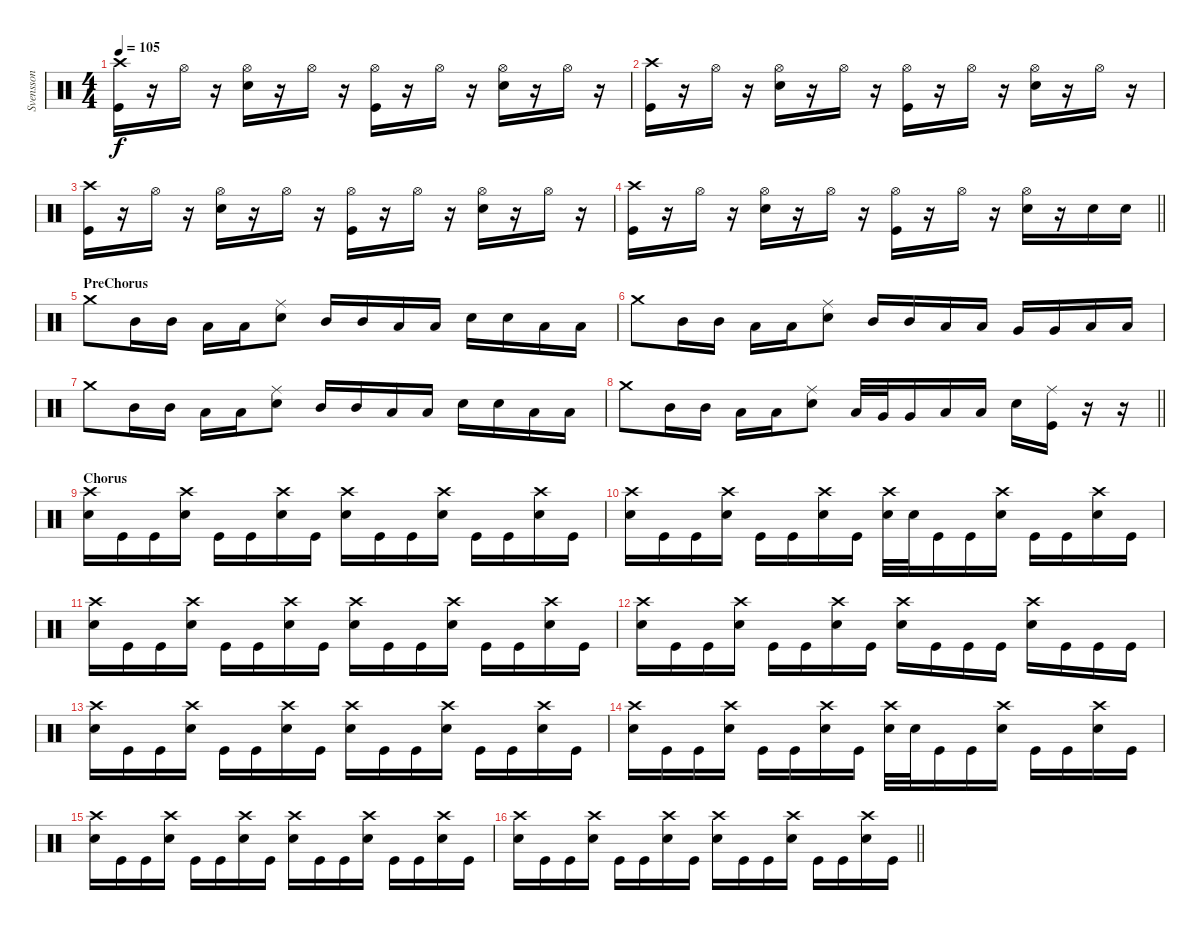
\track ("Svensson" "Svensson") {instrument percussion}
\staff {score}
\articulation defaults
\ts (4 4)
\tempo 105
\clef neutral
\ks c
("Crash high (hit)" "Kick (hit)").16{dy f} r.16 "Hi-Hat (open)".16 r.16 ("Hi-Hat (open)" "Snare (hit) 2").16 r.16 "Hi-Hat (open)".16 r.16 ("Hi-Hat (open)" "Kick (hit)").16 r.16 "Hi-Hat (open)".16 r.16 ("Hi-Hat (open)" "Snare (hit) 2").16 r.16 "Hi-Hat (open)".16 r.16 |
("Crash high (hit)" "Kick (hit)").16 r.16 "Hi-Hat (open)".16 r.16 ("Hi-Hat (open)" "Snare (hit) 2").16 r.16 "Hi-Hat (open)".16 r.16 ("Hi-Hat (open)" "Kick (hit)").16 r.16 "Hi-Hat (open)".16 r.16 ("Hi-Hat (open)" "Snare (hit) 2").16 r.16 "Hi-Hat (open)".16 r.16 |
("Crash high (hit)" "Kick (hit)").16 r.16 "Hi-Hat (open)".16 r.16 ("Hi-Hat (open)" "Snare (hit) 2").16 r.16 "Hi-Hat (open)".16 r.16 ("Hi-Hat (open)" "Kick (hit)").16 r.16 "Hi-Hat (open)".16 r.16 ("Hi-Hat (open)" "Snare (hit) 2").16 r.16 "Hi-Hat (open)".16 r.16 |
\barLineRight lightlight
("Crash high (hit)" "Kick (hit)").16 r.16 "Hi-Hat (open)".16 r.16 ("Hi-Hat (open)" "Snare (hit) 2").16 r.16 "Hi-Hat (open)".16 r.16 ("Hi-Hat (open)" "Kick (hit)").16 r.16 "Hi-Hat (open)".16 r.16 ("Hi-Hat (open)" "Snare (hit) 2").16 r.16 "Snare (hit) 2".16 "Snare (hit) 2".16 |
\section ("" "PreChorus")
"Crash medium (hit)".8 "Mid Tom (hit)".16 "Mid Tom (hit)".16 "Low Tom (hit)".16 "Low Tom (hit)".16 ("Ride (middle)" "Snare (hit) 2").8 "Mid Tom (hit)".16 "Mid Tom (hit)".16 "Low Tom (hit)".16 "Low Tom (hit)".16 "Snare (hit) 2".16 "Snare (hit) 2".16 "Low Tom (hit)".16 "Low Tom (hit)".16 |
"Crash medium (hit)".8 "Mid Tom (hit)".16 "Mid Tom (hit)".16 "Low Tom (hit)".16 "Low Tom (hit)".16 ("Ride (middle)" "Snare (hit) 2").8 "Mid Tom (hit)".16 "Mid Tom (hit)".16 "Low Tom (hit)".16 "Low Tom (hit)".16 "Very Low Tom (hit)".16 "Very Low Tom (hit)".16 "Low Tom (hit)".16 "Low Tom (hit)".16 |
"Crash medium (hit)".8 "Mid Tom (hit)".16 "Mid Tom (hit)".16 "Low Tom (hit)".16 "Low Tom (hit)".16 ("Ride (middle)" "Snare (hit) 2").8 "Mid Tom (hit)".16 "Mid Tom (hit)".16 "Low Tom (hit)".16 "Low Tom (hit)".16 "Snare (hit) 2".16 "Snare (hit) 2".16 "Low Tom (hit)".16 "Low Tom (hit)".16 |
\barLineRight lightlight "Crash medium (hit)".8 "Mid Tom (hit)".16 "Mid Tom (hit)".16 "Low Tom (hit)".16 "Low Tom (hit)".16
("Ride (middle)" "Snare (hit) 2").8 "Low Tom (hit)".32 "Very Low Tom (hit)".32 "Very Low Tom (hit)".16 "Low Tom (hit)".16 "Low Tom (hit)".16 "Snare (hit) 2".16 ("Ride (middle)" "Kick (hit)").16 r.16 r.16 |
\section ("" "Chorus")
("Crash high (hit)" "Snare (hit) 2").16 "Kick (hit)".16 "Kick (hit)".16 ("Crash high (hit)" "Snare (hit) 2").16 "Kick (hit)".16 "Kick (hit)".16 ("Crash high (hit)" "Snare (hit) 2").16 "Kick (hit)".16 ("Crash high (hit)" "Snare (hit) 2").16 "Kick (hit)".16 "Kick (hit)".16 ("Crash high (hit)" "Snare (hit) 2").16 "Kick (hit)".16 "Kick (hit)".16 ("Crash high (hit)" "Snare (hit) 2").16 "Kick (hit)".16 |
("Crash high (hit)" "Snare (hit) 2").16 "Kick (hit)".16 "Kick (hit)".16 ("Crash high (hit)" "Snare (hit) 2").16 "Kick (hit)".16 "Kick (hit)".16 ("Crash high (hit)" "Snare (hit) 2").16 "Kick (hit)".16 ("Crash high (hit)" "Snare (hit) 2").32 "Snare (hit) 2".32 "Kick (hit)".16 "Kick (hit)".16 ("Crash high (hit)" "Snare (hit) 2").16 "Kick (hit)".16 "Kick (hit)".16 ("Crash high (hit)" "Snare (hit) 2").16 "Kick (hit)".16 |
("Crash high (hit)" "Snare (hit) 2").16 "Kick (hit)".16 "Kick (hit)".16 ("Crash high (hit)" "Snare (hit) 2").16 "Kick (hit)".16 "Kick (hit)".16 ("Crash high (hit)" "Snare (hit) 2").16 "Kick (hit)".16 ("Crash high (hit)" "Snare (hit) 2").16 "Kick (hit)".16 "Kick (hit)".16 ("Crash high (hit)" "Snare (hit) 2").16 "Kick (hit)".16 "Kick (hit)".16 ("Crash high (hit)" "Snare (hit) 2").16 "Kick (hit)".16 |
("Crash high (hit)" "Snare (hit) 2").16 "Kick (hit)".16 "Kick (hit)".16 ("Crash high (hit)" "Snare (hit) 2").16 "Kick (hit)".16 "Kick (hit)".16 ("Crash high (hit)" "Snare (hit) 2").16 "Kick (hit)".16 ("Crash high (hit)" "Snare (hit) 2").16 "Kick (hit)".16 "Kick (hit)".16 "Kick (hit)".16 ("Crash high (hit)" "Snare (hit) 2").16 "Kick (hit)".16 "Kick (hit)".16 "Kick (hit)".16 |
("Crash high (hit)" "Snare (hit) 2").16 "Kick (hit)".16 "Kick (hit)".16 ("Crash high (hit)" "Snare (hit) 2").16 "Kick (hit)".16 "Kick (hit)".16 ("Crash high (hit)" "Snare (hit) 2").16 "Kick (hit)".16 ("Crash high (hit)" "Snare (hit) 2").16 "Kick (hit)".16 "Kick (hit)".16 ("Crash high (hit)" "Snare (hit) 2").16 "Kick (hit)".16 "Kick (hit)".16 ("Crash high (hit)" "Snare (hit) 2").16 "Kick (hit)".16 |
("Crash high (hit)" "Snare (hit) 2").16 "Kick (hit)".16 "Kick (hit)".16 ("Crash high (hit)" "Snare (hit) 2").16 "Kick (hit)".16 "Kick (hit)".16 ("Crash high (hit)" "Snare (hit) 2").16 "Kick (hit)".16 ("Crash high (hit)" "Snare (hit) 2").32 "Snare (hit) 2".32 "Kick (hit)".16 "Kick (hit)".16 ("Crash high (hit)" "Snare (hit) 2").16 "Kick (hit)".16 "Kick (hit)".16 ("Crash high (hit)" "Snare (hit) 2").16 "Kick (hit)".16 |
("Crash high (hit)" "Snare (hit) 2").16 "Kick (hit)".16 "Kick (hit)".16 ("Crash high (hit)" "Snare (hit) 2").16 "Kick (hit)".16 "Kick (hit)".16 ("Crash high (hit)" "Snare (hit) 2").16 "Kick (hit)".16 ("Crash high (hit)" "Snare (hit) 2").16 "Kick (hit)".16 "Kick (hit)".16 ("Crash high (hit)" "Snare (hit) 2").16 "Kick (hit)".16 "Kick (hit)".16 ("Crash high (hit)" "Snare (hit) 2").16 "Kick (hit)".16 |
\barLineRight lightlight
("Crash high (hit)" "Snare (hit) 2").16 "Kick (hit)".16 "Kick (hit)".16 ("Crash high (hit)" "Snare (hit) 2").16 "Kick (hit)".16 "Kick (hit)".16 ("Crash high (hit)" "Snare (hit) 2").16 "Kick (hit)".16 ("Crash high (hit)" "Snare (hit) 2").16 "Kick (hit)".16 "Kick (hit)".16 ("Crash high (hit)" "Snare (hit) 2").16 "Kick (hit)".16 "Kick (hit)".16 ("Crash high (hit)" "Snare (hit) 2").16 "Kick (hit)".16
